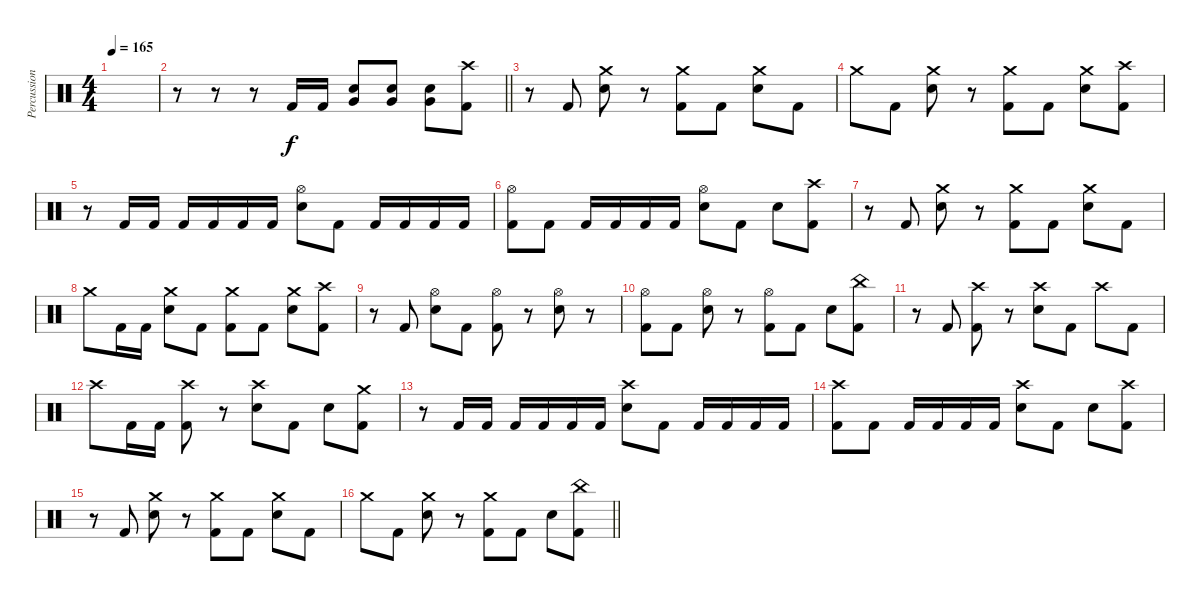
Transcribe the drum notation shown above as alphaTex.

\track ("Percussion" "Percussion") {instrument percussion}
\staff {score}
\articulation defaults
\ts (4 4)
\section ("" "")
\tempo 165
\clef neutral
\ks c
|
\barLineRight lightlight
r.8 r.8 r.8 "Kick (hit) 2".16 "Kick (hit) 2".16 ("Very Low Tom (hit)" "Snare (hit) 2").8 ("Very Low Tom (hit)" "Snare (hit) 2").8 ("Very Low Tom (hit)" "Snare (hit) 2").8 ("Crash high (hit)" "Kick (hit) 2").8 |
\section ("" "")
r.8 "Kick (hit) 2".8 ("Crash medium (hit)" "Snare (hit) 2").8 r.8 ("Crash medium (hit)" "Kick (hit) 2").8 "Kick (hit) 2".8 ("Crash medium (hit)" "Snare (hit) 2").8 "Kick (hit) 2".8 |
"Crash medium (hit)".8 "Kick (hit) 2".8 ("Crash medium (hit)" "Snare (hit) 2").8 r.8 ("Crash medium (hit)" "Kick (hit) 2").8 "Kick (hit) 2".8 ("Crash medium (hit)" "Snare (hit) 2").8 ("Crash high (hit)" "Kick (hit) 2").8 |
r.8 "Kick (hit) 2".16 "Kick (hit) 2".16 "Kick (hit) 2".16 "Kick (hit) 2".16 "Kick (hit) 2".16 "Kick (hit) 2".16 ("Hi-Hat (open)" "Snare (hit) 2").8 "Kick (hit) 2".8 "Kick (hit) 2".16 "Kick (hit) 2".16 "Kick (hit) 2".16 "Kick (hit) 2".16 |
("Hi-Hat (open)" "Kick (hit) 2").8 "Kick (hit) 2".8 "Kick (hit) 2".16 "Kick (hit) 2".16 "Kick (hit) 2".16 "Kick (hit) 2".16 ("Hi-Hat (open)" "Snare (hit) 2").8 "Kick (hit) 2".8 "Snare (hit) 2".8 ("Crash high (hit)" "Kick (hit) 2").8 |
r.8 "Kick (hit) 2".8 ("Crash medium (hit)" "Snare (hit) 2").8 r.8 ("Crash medium (hit)" "Kick (hit) 2").8 "Kick (hit) 2".8 ("Crash medium (hit)" "Snare (hit) 2").8 "Kick (hit) 2".8 |
"Crash medium (hit)".8 "Kick (hit) 2".16 "Kick (hit) 2".16 ("Crash medium (hit)" "Snare (hit) 2").8 "Kick (hit) 2".8 ("Crash medium (hit)" "Kick (hit) 2").8 "Kick (hit) 2".8 ("Crash medium (hit)" "Snare (hit) 2").8 ("Crash high (hit)" "Kick (hit) 2").8 |
r.8 "Kick (hit) 2".8 ("Hi-Hat (open)" "Snare (hit) 2").8 "Kick (hit) 2".8 ("Hi-Hat (open)" "Kick (hit) 2").8 r.8 ("Hi-Hat (open)" "Snare (hit) 2").8 r.8 |
("Hi-Hat (open)" "Kick (hit) 2").8 "Kick (hit) 2".8 ("Hi-Hat (open)" "Snare (hit) 2").8 r.8 ("Hi-Hat (open)" "Kick (hit) 2").8 "Kick (hit) 2".8 "Snare (hit) 2".8 ("China (hit)" "Kick (hit) 2").8 |
r.8 "Kick (hit) 2".8 ("Crash high (hit)" "Kick (hit) 2").8 r.8 ("Crash high (hit)" "Snare (hit) 2").8 "Kick (hit) 2".8 "Crash high (hit)".8 "Kick (hit) 2".8 |
"Crash high (hit)".8 "Kick (hit) 2".16 "Kick (hit) 2".16 ("Crash high (hit)" "Kick (hit) 2").8 r.8 ("Crash high (hit)" "Snare (hit) 2").8 "Kick (hit) 2".8 "Snare (hit) 2".8 ("Crash medium (hit)" "Kick (hit) 2").8 |
r.8 "Kick (hit) 2".16 "Kick (hit) 2".16 "Kick (hit) 2".16 "Kick (hit) 2".16 "Kick (hit) 2".16 "Kick (hit) 2".16 ("Crash high (hit)" "Snare (hit) 2").8 "Kick (hit) 2".8 "Kick (hit) 2".16 "Kick (hit) 2".16 "Kick (hit) 2".16 "Kick (hit) 2".16 |
("Crash high (hit)" "Kick (hit) 2").8 "Kick (hit) 2".8 "Kick (hit) 2".16 "Kick (hit) 2".16 "Kick (hit) 2".16 "Kick (hit) 2".16 ("Crash high (hit)" "Snare (hit) 2").8 "Kick (hit) 2".8 "Snare (hit) 2".8 ("Crash high (hit)" "Kick (hit) 2").8 |
r.8 "Kick (hit) 2".8 ("Crash medium (hit)" "Snare (hit) 2").8 r.8 ("Crash medium (hit)" "Kick (hit) 2").8 "Kick (hit) 2".8 ("Crash medium (hit)" "Snare (hit) 2").8 "Kick (hit) 2".8 |
\barLineRight lightlight "Crash medium (hit)".8 "Kick (hit) 2".8
("Crash medium (hit)" "Snare (hit) 2").8 r.8 ("Crash medium (hit)" "Kick (hit) 2").8 "Kick (hit) 2".8 "Snare (hit) 2".8 ("China (hit)" "Kick (hit) 2").8
